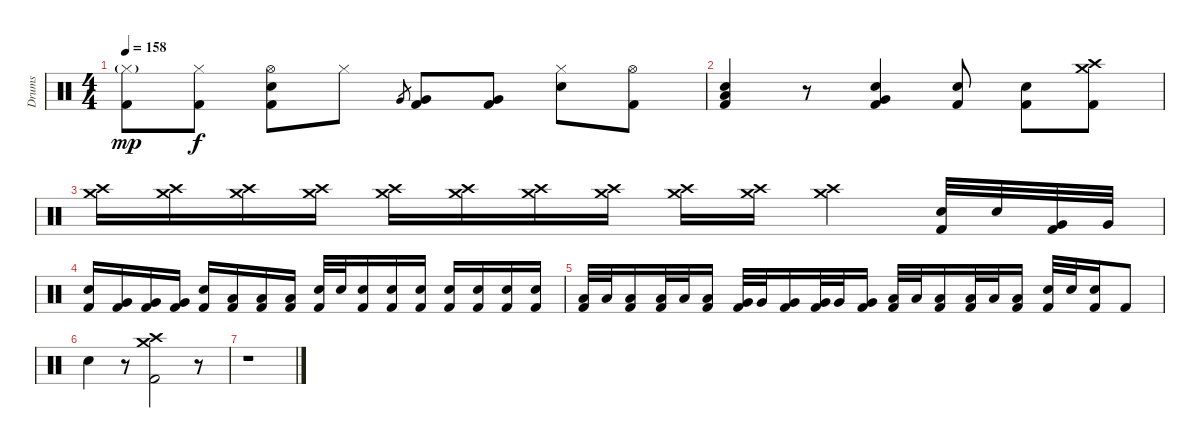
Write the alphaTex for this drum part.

\track ("Drums" "Drums") {instrument percussion}
\staff {score}
\articulation defaults
\ts (4 4)
\tempo 158
\clef neutral
\ks c
("Hi-Hat (closed)"{g} "Kick (hit) 2").8{dy mp} ("Hi-Hat (closed)" "Kick (hit) 2").8{dy f} ("Hi-Hat (open)" "Snare (hit) 2" "Kick (hit) 2").8 "Hi-Hat (closed)".8 "Very Low Tom (hit)".8{gr} ("Very Low Tom (hit)" "Kick (hit) 2").8 ("Very Low Tom (hit)" "Kick (hit) 2").8 ("Hi-Hat (closed)" "Snare (hit) 2").8 ("Hi-Hat (open)" "Kick (hit) 2").8 |
("Low Tom (hit)" "Snare (hit) 2" "Kick (hit) 2").4 r.8 ("Very Low Tom (hit)" "Snare (hit) 2" "Kick (hit) 2").4 ("Snare (hit) 2" "Kick (hit) 2").8 ("Snare (hit) 2" "Kick (hit) 2").8 ("Crash medium (hit)" "Crash high (hit)" "Kick (hit) 2").8 |
("Crash medium (hit)" "Crash high (hit)").16 ("Crash medium (hit)" "Crash high (hit)").16 ("Crash medium (hit)" "Crash high (hit)").16 ("Crash medium (hit)" "Crash high (hit)").16 ("Crash medium (hit)" "Crash high (hit)").16 ("Crash medium (hit)" "Crash high (hit)").16 ("Crash medium (hit)" "Crash high (hit)").16 ("Crash medium (hit)" "Crash high (hit)").16 ("Crash medium (hit)" "Crash high (hit)").16 ("Crash medium (hit)" "Crash high (hit)").16 ("Crash medium (hit)" "Crash high (hit)").4 ("Snare (hit) 2" "Kick (hit) 2").32 "Snare (hit) 2".32 ("Very Low Tom (hit)" "Kick (hit) 2").32 "Very Low Tom (hit)".32 |
("Snare (hit) 2" "Kick (hit) 2").16 ("Very Low Tom (hit)" "Kick (hit) 2").16 ("Very Low Tom (hit)" "Kick (hit) 2").16 ("Very Low Tom (hit)" "Kick (hit) 2").16 ("Snare (hit) 2" "Kick (hit) 2").16 ("Low Floor Tom (hit)" "Kick (hit) 2").16 ("Low Floor Tom (hit)" "Kick (hit) 2").16 ("Low Floor Tom (hit)" "Kick (hit) 2").16 ("Snare (hit) 2" "Kick (hit) 2").32 "Snare (hit) 2".32 ("Snare (hit) 2" "Kick (hit) 2").16 ("Snare (hit) 2" "Kick (hit) 2").16 ("Snare (hit) 2" "Kick (hit) 2").16 ("Snare (hit) 2" "Kick (hit) 2").16 ("Snare (hit) 2" "Kick (hit) 2").16 ("Snare (hit) 2" "Kick (hit) 2").16 ("Snare (hit) 2" "Kick (hit) 2").16 |
("Low Tom (hit)" "Kick (hit) 2").32 "Low Tom (hit)".32 ("Low Tom (hit)" "Kick (hit) 2").16 ("Low Tom (hit)" "Kick (hit) 2").32 "Low Tom (hit)".32 ("Low Tom (hit)" "Kick (hit) 2").16 ("Very Low Tom (hit)" "Kick (hit) 2").32 "Very Low Tom (hit)".32 ("Very Low Tom (hit)" "Kick (hit) 2").16 ("Very Low Tom (hit)" "Kick (hit) 2").32 "Very Low Tom (hit)".32 ("Very Low Tom (hit)" "Kick (hit) 2").16 ("Low Floor Tom (hit)" "Kick (hit) 2").32 "Low Floor Tom (hit)".32 ("Low Floor Tom (hit)" "Kick (hit) 2").16 ("Low Floor Tom (hit)" "Kick (hit) 2").32 "Low Floor Tom (hit)".32 ("Low Floor Tom (hit)" "Kick (hit) 2").16 ("Snare (hit) 2" "Kick (hit) 2").32 "Snare (hit) 2".32 ("Snare (hit) 2" "Kick (hit) 2").16 "Kick (hit) 2".8 |
"Snare (hit) 2".4 r.8 ("Crash medium (hit)" "Crash high (hit)" "Kick (hit) 2").2 r.8 |
r.1
